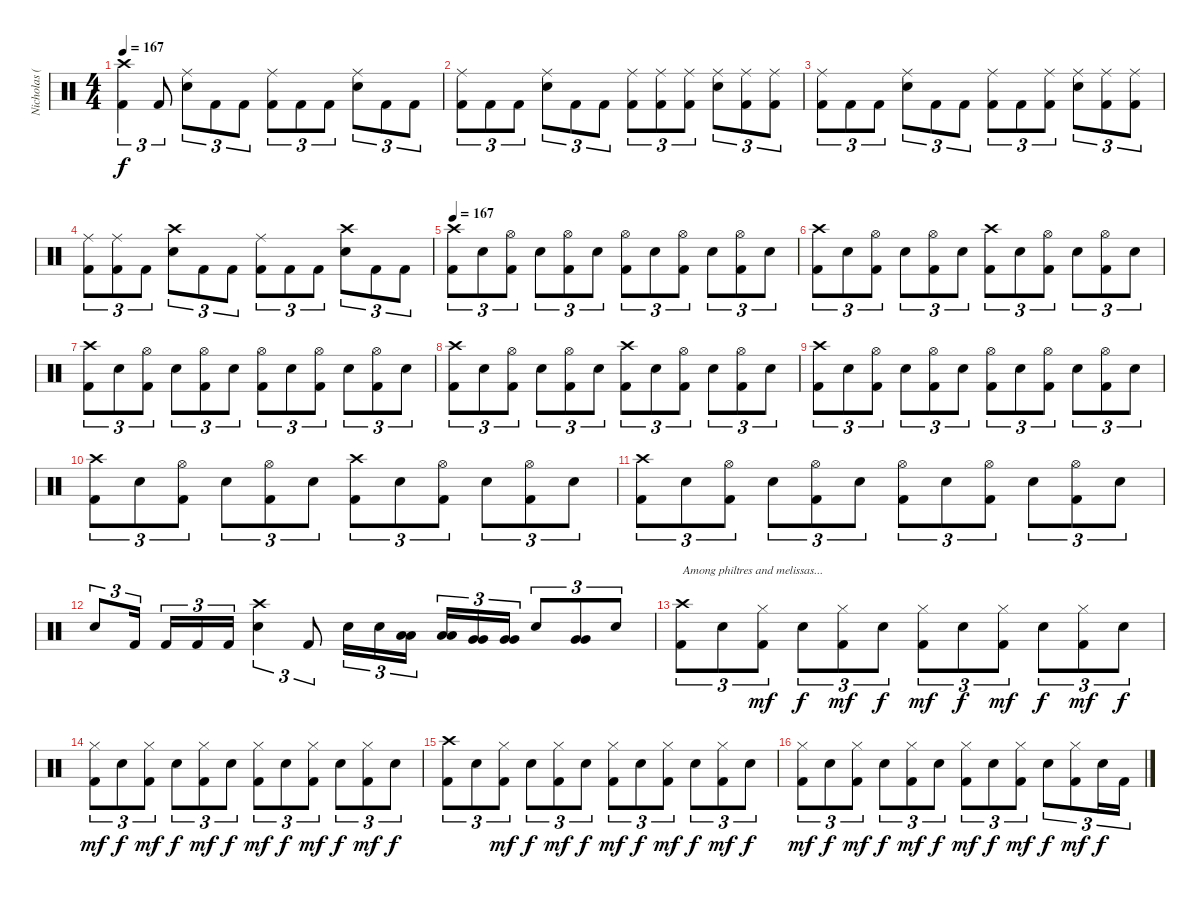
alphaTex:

\track ("Nicholas (Drums)" "Nicholas (") {instrument percussion}
\staff {score}
\articulation defaults
\ts (4 4)
\tempo 167
\clef neutral
\ks c
("Crash high (hit)" "Kick (hit) 2").4{tu (3 2) dy f} "Kick (hit) 2".8{tu (3 2)} ("Ride (middle)" "Electric Snare (hit)").8{tu (3 2)} "Kick (hit) 2".8{tu (3 2)} "Kick (hit) 2".8{tu (3 2)} ("Ride (middle)" "Kick (hit) 2").8{tu (3 2)} "Kick (hit) 2".8{tu (3 2)} "Kick (hit) 2".8{tu (3 2)} ("Ride (middle)" "Electric Snare (hit)").8{tu (3 2)} "Kick (hit) 2".8{tu (3 2)} "Kick (hit) 2".8{tu (3 2)} |
("Ride (middle)" "Kick (hit) 2").8{tu (3 2)} "Kick (hit) 2".8{tu (3 2)} "Kick (hit) 2".8{tu (3 2)} ("Ride (middle)" "Electric Snare (hit)").8{tu (3 2)} "Kick (hit) 2".8{tu (3 2)} "Kick (hit) 2".8{tu (3 2)} ("Ride (middle)" "Kick (hit) 2").8{tu (3 2)} ("Ride (middle)" "Kick (hit) 2").8{tu (3 2)} ("Ride (middle)" "Kick (hit) 2").8{tu (3 2)} ("Ride (middle)" "Electric Snare (hit)").8{tu (3 2)} ("Ride (middle)" "Kick (hit) 2").8{tu (3 2)} ("Ride (middle)" "Kick (hit) 2").8{tu (3 2)} |
("Ride (middle)" "Kick (hit) 2").8{tu (3 2)} "Kick (hit) 2".8{tu (3 2)} "Kick (hit) 2".8{tu (3 2)} ("Ride (middle)" "Electric Snare (hit)").8{tu (3 2)} "Kick (hit) 2".8{tu (3 2)} "Kick (hit) 2".8{tu (3 2)} ("Ride (middle)" "Kick (hit) 2").8{tu (3 2)} "Kick (hit) 2".8{tu (3 2)} ("Ride (middle)" "Kick (hit) 2").8{tu (3 2)} ("Ride (middle)" "Electric Snare (hit)").8{tu (3 2)} ("Ride (middle)" "Kick (hit) 2").8{tu (3 2)} ("Ride (middle)" "Kick (hit) 2").8{tu (3 2)} |
("Ride (middle)" "Kick (hit) 2").8{tu (3 2)} ("Ride (middle)" "Kick (hit) 2").8{tu (3 2)} "Kick (hit) 2".8{tu (3 2)} ("Crash high (hit)" "Electric Snare (hit)").8{tu (3 2)} "Kick (hit) 2".8{tu (3 2)} "Kick (hit) 2".8{tu (3 2)} ("Ride (middle)" "Kick (hit) 2").8{tu (3 2)} "Kick (hit) 2".8{tu (3 2)} "Kick (hit) 2".8{tu (3 2)} ("Crash high (hit)" "Electric Snare (hit)").8{tu (3 2)} "Kick (hit) 2".8{tu (3 2)} "Kick (hit) 2".8{tu (3 2)} |
\tempo 167
("Crash high (hit)" "Kick (hit) 2").8{tu (3 2)} "Electric Snare (hit)".8{tu (3 2)} ("Hi-Hat (open)" "Kick (hit) 2").8{tu (3 2)} "Electric Snare (hit)".8{tu (3 2)} ("Hi-Hat (open)" "Kick (hit) 2").8{tu (3 2)} "Electric Snare (hit)".8{tu (3 2)} ("Hi-Hat (open)" "Kick (hit) 2").8{tu (3 2)} "Electric Snare (hit)".8{tu (3 2)} ("Hi-Hat (open)" "Kick (hit) 2").8{tu (3 2)} "Electric Snare (hit)".8{tu (3 2)} ("Hi-Hat (open)" "Kick (hit) 2").8{tu (3 2)} "Electric Snare (hit)".8{tu (3 2)} |
("Crash high (hit)" "Kick (hit) 2").8{tu (3 2)} "Electric Snare (hit)".8{tu (3 2)} ("Hi-Hat (open)" "Kick (hit) 2").8{tu (3 2)} "Electric Snare (hit)".8{tu (3 2)} ("Hi-Hat (open)" "Kick (hit) 2").8{tu (3 2)} "Electric Snare (hit)".8{tu (3 2)} ("Crash high (hit)" "Kick (hit) 2").8{tu (3 2)} "Electric Snare (hit)".8{tu (3 2)} ("Hi-Hat (open)" "Kick (hit) 2").8{tu (3 2)} "Electric Snare (hit)".8{tu (3 2)} ("Hi-Hat (open)" "Kick (hit) 2").8{tu (3 2)} "Electric Snare (hit)".8{tu (3 2)} |
("Crash high (hit)" "Kick (hit) 2").8{tu (3 2)} "Electric Snare (hit)".8{tu (3 2)} ("Hi-Hat (open)" "Kick (hit) 2").8{tu (3 2)} "Electric Snare (hit)".8{tu (3 2)} ("Hi-Hat (open)" "Kick (hit) 2").8{tu (3 2)} "Electric Snare (hit)".8{tu (3 2)} ("Hi-Hat (open)" "Kick (hit) 2").8{tu (3 2)} "Electric Snare (hit)".8{tu (3 2)} ("Hi-Hat (open)" "Kick (hit) 2").8{tu (3 2)} "Electric Snare (hit)".8{tu (3 2)} ("Hi-Hat (open)" "Kick (hit) 2").8{tu (3 2)} "Electric Snare (hit)".8{tu (3 2)} |
("Crash high (hit)" "Kick (hit) 2").8{tu (3 2)} "Electric Snare (hit)".8{tu (3 2)} ("Hi-Hat (open)" "Kick (hit) 2").8{tu (3 2)} "Electric Snare (hit)".8{tu (3 2)} ("Hi-Hat (open)" "Kick (hit) 2").8{tu (3 2)} "Electric Snare (hit)".8{tu (3 2)} ("Crash high (hit)" "Kick (hit) 2").8{tu (3 2)} "Electric Snare (hit)".8{tu (3 2)} ("Hi-Hat (open)" "Kick (hit) 2").8{tu (3 2)} "Electric Snare (hit)".8{tu (3 2)} ("Hi-Hat (open)" "Kick (hit) 2").8{tu (3 2)} "Electric Snare (hit)".8{tu (3 2)} |
("Crash high (hit)" "Kick (hit) 2").8{tu (3 2)} "Electric Snare (hit)".8{tu (3 2)} ("Hi-Hat (open)" "Kick (hit) 2").8{tu (3 2)} "Electric Snare (hit)".8{tu (3 2)} ("Hi-Hat (open)" "Kick (hit) 2").8{tu (3 2)} "Electric Snare (hit)".8{tu (3 2)} ("Hi-Hat (open)" "Kick (hit) 2").8{tu (3 2)} "Electric Snare (hit)".8{tu (3 2)} ("Hi-Hat (open)" "Kick (hit) 2").8{tu (3 2)} "Electric Snare (hit)".8{tu (3 2)} ("Hi-Hat (open)" "Kick (hit) 2").8{tu (3 2)} "Electric Snare (hit)".8{tu (3 2)} |
("Crash high (hit)" "Kick (hit) 2").8{tu (3 2)} "Electric Snare (hit)".8{tu (3 2)} ("Hi-Hat (open)" "Kick (hit) 2").8{tu (3 2)} "Electric Snare (hit)".8{tu (3 2)} ("Hi-Hat (open)" "Kick (hit) 2").8{tu (3 2)} "Electric Snare (hit)".8{tu (3 2)} ("Crash high (hit)" "Kick (hit) 2").8{tu (3 2)} "Electric Snare (hit)".8{tu (3 2)} ("Hi-Hat (open)" "Kick (hit) 2").8{tu (3 2)} "Electric Snare (hit)".8{tu (3 2)} ("Hi-Hat (open)" "Kick (hit) 2").8{tu (3 2)} "Electric Snare (hit)".8{tu (3 2)} |
("Crash high (hit)" "Kick (hit) 2").8{tu (3 2)} "Electric Snare (hit)".8{tu (3 2)} ("Hi-Hat (open)" "Kick (hit) 2").8{tu (3 2)} "Electric Snare (hit)".8{tu (3 2)} ("Hi-Hat (open)" "Kick (hit) 2").8{tu (3 2)} "Electric Snare (hit)".8{tu (3 2)} ("Hi-Hat (open)" "Kick (hit) 2").8{tu (3 2)} "Electric Snare (hit)".8{tu (3 2)} ("Hi-Hat (open)" "Kick (hit) 2").8{tu (3 2)} "Electric Snare (hit)".8{tu (3 2)} ("Hi-Hat (open)" "Kick (hit) 2").8{tu (3 2)} "Electric Snare (hit)".8{tu (3 2)} |
"Electric Snare (hit)".8{tu (3 2)} "Kick (hit) 2".16{tu (3 2)} "Kick (hit) 2".16{tu (3 2)} "Kick (hit) 2".16{tu (3 2)} "Kick (hit) 2".16{tu (3 2)} ("Crash high (hit)" "Electric Snare (hit)").4{tu (3 2)} "Kick (hit) 2".8{tu (3 2)} "Electric Snare (hit)".16{tu (3 2)} "Electric Snare (hit)".16{tu (3 2)} ("Low Tom (hit)" "Low Tom (hit)").16{tu (3 2)} ("Low Tom (hit)" "Low Tom (hit)").16{tu (3 2)} ("Very Low Tom (hit)" "Very Low Tom (hit)").16{tu (3 2)} ("Very Low Tom (hit)" "Very Low Tom (hit)").16{tu (3 2)} "Electric Snare (hit)".8{tu (3 2)} ("Very Low Tom (hit)" "Very Low Tom (hit)").8{tu (3 2)} "Electric Snare (hit)".8{tu (3 2)} |
("Crash high (hit)" "Kick (hit) 2").8{tu (3 2) txt "Among philtres and melissas..."} "Electric Snare (hit)".8{tu (3 2)} ("Hi-Hat (closed)" "Kick (hit) 2").8{tu (3 2) dy mf} "Electric Snare (hit)".8{tu (3 2) dy f} ("Hi-Hat (closed)" "Kick (hit) 2").8{tu (3 2) dy mf} "Electric Snare (hit)".8{tu (3 2) dy f} ("Hi-Hat (closed)" "Kick (hit) 2").8{tu (3 2) dy mf} "Electric Snare (hit)".8{tu (3 2) dy f} ("Hi-Hat (closed)" "Kick (hit) 2").8{tu (3 2) dy mf} "Electric Snare (hit)".8{tu (3 2) dy f} ("Hi-Hat (closed)" "Kick (hit) 2").8{tu (3 2) dy mf} "Electric Snare (hit)".8{tu (3 2) dy f} |
("Hi-Hat (closed)" "Kick (hit) 2").8{tu (3 2) dy mf} "Electric Snare (hit)".8{tu (3 2) dy f} ("Hi-Hat (closed)" "Kick (hit) 2").8{tu (3 2) dy mf} "Electric Snare (hit)".8{tu (3 2) dy f} ("Hi-Hat (closed)" "Kick (hit) 2").8{tu (3 2) dy mf} "Electric Snare (hit)".8{tu (3 2) dy f} ("Hi-Hat (closed)" "Kick (hit) 2").8{tu (3 2) dy mf} "Electric Snare (hit)".8{tu (3 2) dy f} ("Hi-Hat (closed)" "Kick (hit) 2").8{tu (3 2) dy mf} "Electric Snare (hit)".8{tu (3 2) dy f} ("Hi-Hat (closed)" "Kick (hit) 2").8{tu (3 2) dy mf} "Electric Snare (hit)".8{tu (3 2) dy f} |
("Crash high (hit)" "Kick (hit) 2").8{tu (3 2)} "Electric Snare (hit)".8{tu (3 2)} ("Hi-Hat (closed)" "Kick (hit) 2").8{tu (3 2) dy mf} "Electric Snare (hit)".8{tu (3 2) dy f} ("Hi-Hat (closed)" "Kick (hit) 2").8{tu (3 2) dy mf} "Electric Snare (hit)".8{tu (3 2) dy f} ("Hi-Hat (closed)" "Kick (hit) 2").8{tu (3 2) dy mf} "Electric Snare (hit)".8{tu (3 2) dy f} ("Hi-Hat (closed)" "Kick (hit) 2").8{tu (3 2) dy mf} "Electric Snare (hit)".8{tu (3 2) dy f} ("Hi-Hat (closed)" "Kick (hit) 2").8{tu (3 2) dy mf} "Electric Snare (hit)".8{tu (3 2) dy f} |
("Hi-Hat (closed)" "Kick (hit) 2").8{tu (3 2) dy mf} "Electric Snare (hit)".8{tu (3 2) dy f} ("Hi-Hat (closed)" "Kick (hit) 2").8{tu (3 2) dy mf} "Electric Snare (hit)".8{tu (3 2) dy f} ("Hi-Hat (closed)" "Kick (hit) 2").8{tu (3 2) dy mf} "Electric Snare (hit)".8{tu (3 2) dy f} ("Hi-Hat (closed)" "Kick (hit) 2").8{tu (3 2) dy mf} "Electric Snare (hit)".8{tu (3 2) dy f} ("Hi-Hat (closed)" "Kick (hit) 2").8{tu (3 2) dy mf} "Electric Snare (hit)".8{tu (3 2) dy f} ("Hi-Hat (closed)" "Kick (hit) 2").8{tu (3 2) dy mf} "Electric Snare (hit)".16{tu (3 2) dy f} "Kick (hit) 2".16{tu (3 2)}
